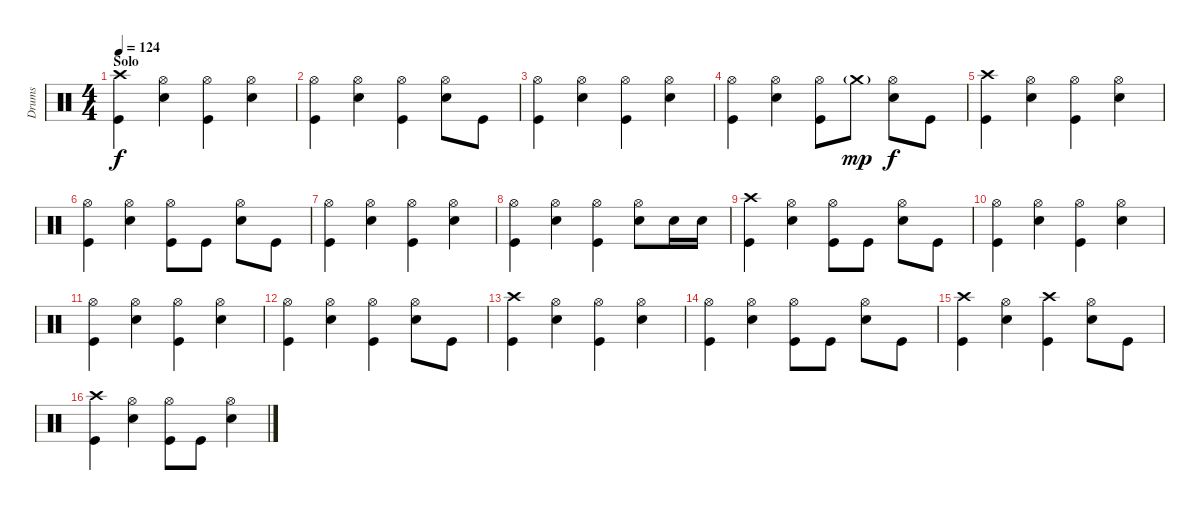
\track ("Drums" "Drums") {instrument percussion}
\staff {score}
\articulation defaults
\ts (4 4)
\section ("" "Solo")
\tempo 124
\clef neutral
\ks c
("Crash high (hit)" "Kick (hit)").4{dy f} ("Hi-Hat (open)" "Snare (hit) 2").4 ("Hi-Hat (open)" "Kick (hit)").4 ("Hi-Hat (open)" "Snare (hit) 2").4 |
("Hi-Hat (open)" "Kick (hit)").4 ("Hi-Hat (open)" "Snare (hit) 2").4 ("Hi-Hat (open)" "Kick (hit)").4 ("Hi-Hat (open)" "Snare (hit) 2").8 "Kick (hit)".8 |
("Hi-Hat (open)" "Kick (hit)").4 ("Hi-Hat (open)" "Snare (hit) 2").4 ("Hi-Hat (open)" "Kick (hit)").4 ("Hi-Hat (open)" "Snare (hit) 2").4 |
("Hi-Hat (open)" "Kick (hit)").4 ("Hi-Hat (open)" "Snare (hit) 2").4 ("Hi-Hat (open)" "Kick (hit)").8 "Crash medium (hit)"{g}.8{dy mp} ("Hi-Hat (open)" "Snare (hit) 2").8{dy f} "Kick (hit)".8 |
("Crash high (hit)" "Kick (hit)").4 ("Hi-Hat (open)" "Snare (hit) 2").4 ("Hi-Hat (open)" "Kick (hit)").4 ("Hi-Hat (open)" "Snare (hit) 2").4 |
("Hi-Hat (open)" "Kick (hit)").4 ("Hi-Hat (open)" "Snare (hit) 2").4 ("Hi-Hat (open)" "Kick (hit)").8 "Kick (hit)".8 ("Hi-Hat (open)" "Snare (hit) 2").8 "Kick (hit)".8 |
("Hi-Hat (open)" "Kick (hit)").4 ("Hi-Hat (open)" "Snare (hit) 2").4 ("Hi-Hat (open)" "Kick (hit)").4 ("Hi-Hat (open)" "Snare (hit) 2").4 |
("Hi-Hat (open)" "Kick (hit)").4 ("Hi-Hat (open)" "Snare (hit) 2").4 ("Hi-Hat (open)" "Kick (hit)").4 ("Hi-Hat (open)" "Snare (hit) 2").8 "Snare (hit) 2".16 "Snare (hit) 2".16 |
("Crash high (hit)" "Kick (hit)").4 ("Hi-Hat (open)" "Snare (hit) 2").4 ("Hi-Hat (open)" "Kick (hit)").8 "Kick (hit)".8 ("Hi-Hat (open)" "Snare (hit) 2").8 "Kick (hit)".8 |
("Hi-Hat (open)" "Kick (hit)").4 ("Hi-Hat (open)" "Snare (hit) 2").4 ("Hi-Hat (open)" "Kick (hit)").4 ("Hi-Hat (open)" "Snare (hit) 2").4 |
("Hi-Hat (open)" "Kick (hit)").4 ("Hi-Hat (open)" "Snare (hit) 2").4 ("Hi-Hat (open)" "Kick (hit)").4 ("Hi-Hat (open)" "Snare (hit) 2").4 |
("Hi-Hat (open)" "Kick (hit)").4 ("Hi-Hat (open)" "Snare (hit) 2").4 ("Hi-Hat (open)" "Kick (hit)").4 ("Hi-Hat (open)" "Snare (hit) 2").8 "Kick (hit)".8 |
("Crash high (hit)" "Kick (hit)").4 ("Hi-Hat (open)" "Snare (hit) 2").4 ("Hi-Hat (open)" "Kick (hit)").4 ("Hi-Hat (open)" "Snare (hit) 2").4 |
("Hi-Hat (open)" "Kick (hit)").4 ("Hi-Hat (open)" "Snare (hit) 2").4 ("Hi-Hat (open)" "Kick (hit)").8 "Kick (hit)".8 ("Hi-Hat (open)" "Snare (hit) 2").8 "Kick (hit)".8 |
("Crash high (hit)" "Kick (hit)").4 ("Hi-Hat (open)" "Snare (hit) 2").4 ("Crash high (hit)" "Kick (hit)").4 ("Hi-Hat (open)" "Snare (hit) 2").8 "Kick (hit)".8 |
("Crash high (hit)" "Kick (hit)").4 ("Hi-Hat (open)" "Snare (hit) 2").4 ("Hi-Hat (open)" "Kick (hit)").8 "Kick (hit)".8 ("Hi-Hat (open)" "Snare (hit) 2").4
